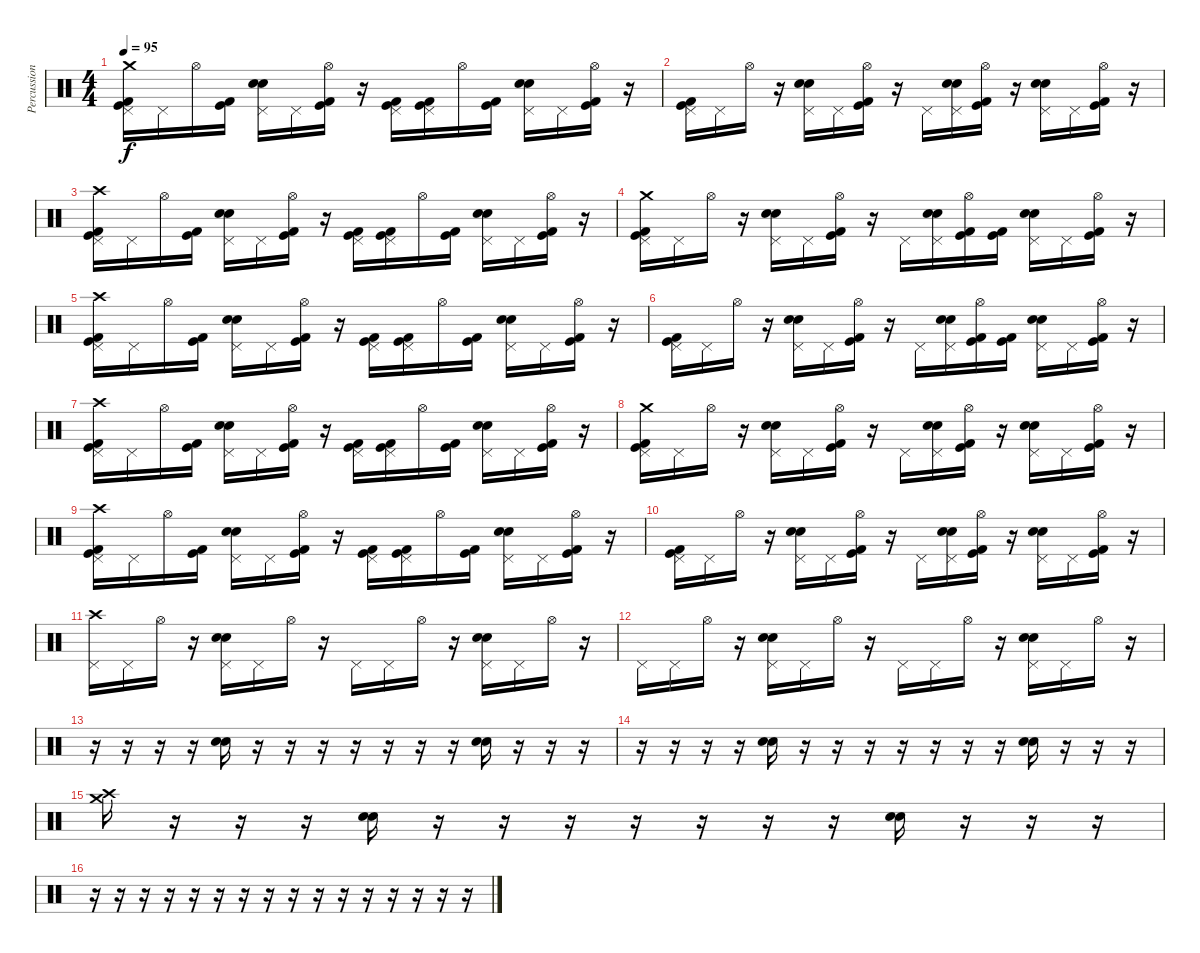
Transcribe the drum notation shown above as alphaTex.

\track ("Percussion" "Percussion") {instrument percussion}
\staff {score}
\articulation defaults
\ts (4 4)
\tempo 95
\clef neutral
\ks c
("Pedal Hi-Hat (hit)" "Crash medium (hit)" "Kick (hit) 2" "Kick (hit)").16{dy f} "Pedal Hi-Hat (hit)".16 "Hi-Hat (open)".16 ("Kick (hit) 2" "Kick (hit)").16 ("Pedal Hi-Hat (hit)" "Hand Clap (hit)" "Snare (hit) 2").16 "Pedal Hi-Hat (hit)".16 ("Hi-Hat (open)" "Kick (hit) 2" "Kick (hit)").16 r.16 ("Pedal Hi-Hat (hit)" "Kick (hit) 2" "Kick (hit)").16 ("Pedal Hi-Hat (hit)" "Kick (hit) 2" "Kick (hit)").16 "Hi-Hat (open)".16 ("Kick (hit) 2" "Kick (hit)").16 ("Pedal Hi-Hat (hit)" "Hand Clap (hit)" "Snare (hit) 2").16 "Pedal Hi-Hat (hit)".16 ("Hi-Hat (open)" "Kick (hit) 2" "Kick (hit)").16 r.16 |
("Pedal Hi-Hat (hit)" "Kick (hit) 2" "Kick (hit)").16 "Pedal Hi-Hat (hit)".16 "Hi-Hat (open)".16 r.16 ("Pedal Hi-Hat (hit)" "Hand Clap (hit)" "Snare (hit) 2").16 "Pedal Hi-Hat (hit)".16 ("Hi-Hat (open)" "Kick (hit) 2" "Kick (hit)").16 r.16 "Pedal Hi-Hat (hit)".16 ("Pedal Hi-Hat (hit)" "Hand Clap (hit)" "Snare (hit) 2").16 ("Hi-Hat (open)" "Kick (hit) 2" "Kick (hit)").16 r.16 ("Pedal Hi-Hat (hit)" "Hand Clap (hit)" "Snare (hit) 2").16 "Pedal Hi-Hat (hit)".16 ("Hi-Hat (open)" "Kick (hit) 2" "Kick (hit)").16 r.16 |
("Pedal Hi-Hat (hit)" "Crash high (hit)" "Kick (hit) 2" "Kick (hit)").16 "Pedal Hi-Hat (hit)".16 "Hi-Hat (open)".16 ("Kick (hit) 2" "Kick (hit)").16 ("Pedal Hi-Hat (hit)" "Hand Clap (hit)" "Snare (hit) 2").16 "Pedal Hi-Hat (hit)".16 ("Hi-Hat (open)" "Kick (hit) 2" "Kick (hit)").16 r.16 ("Pedal Hi-Hat (hit)" "Kick (hit) 2" "Kick (hit)").16 ("Pedal Hi-Hat (hit)" "Kick (hit) 2" "Kick (hit)").16 "Hi-Hat (open)".16 ("Kick (hit) 2" "Kick (hit)").16 ("Pedal Hi-Hat (hit)" "Hand Clap (hit)" "Snare (hit) 2").16 "Pedal Hi-Hat (hit)".16 ("Hi-Hat (open)" "Kick (hit) 2" "Kick (hit)").16 r.16 |
("Pedal Hi-Hat (hit)" "Crash medium (hit)" "Kick (hit) 2" "Kick (hit)").16 "Pedal Hi-Hat (hit)".16 "Hi-Hat (open)".16 r.16 ("Pedal Hi-Hat (hit)" "Hand Clap (hit)" "Snare (hit) 2").16 "Pedal Hi-Hat (hit)".16 ("Hi-Hat (open)" "Kick (hit) 2" "Kick (hit)").16 r.16 "Pedal Hi-Hat (hit)".16 ("Pedal Hi-Hat (hit)" "Hand Clap (hit)" "Snare (hit) 2").16 ("Hi-Hat (open)" "Kick (hit) 2" "Kick (hit)").16 ("Kick (hit) 2" "Kick (hit)").16 ("Pedal Hi-Hat (hit)" "Hand Clap (hit)" "Snare (hit) 2").16 "Pedal Hi-Hat (hit)".16 ("Hi-Hat (open)" "Kick (hit) 2" "Kick (hit)").16 r.16 |
("Pedal Hi-Hat (hit)" "Crash high (hit)" "Kick (hit) 2" "Kick (hit)").16 "Pedal Hi-Hat (hit)".16 "Hi-Hat (open)".16 ("Kick (hit) 2" "Kick (hit)").16 ("Pedal Hi-Hat (hit)" "Hand Clap (hit)" "Snare (hit) 2").16 "Pedal Hi-Hat (hit)".16 ("Hi-Hat (open)" "Kick (hit) 2" "Kick (hit)").16 r.16 ("Pedal Hi-Hat (hit)" "Kick (hit) 2" "Kick (hit)").16 ("Pedal Hi-Hat (hit)" "Kick (hit) 2" "Kick (hit)").16 "Hi-Hat (open)".16 ("Kick (hit) 2" "Kick (hit)").16 ("Pedal Hi-Hat (hit)" "Hand Clap (hit)" "Snare (hit) 2").16 "Pedal Hi-Hat (hit)".16 ("Hi-Hat (open)" "Kick (hit) 2" "Kick (hit)").16 r.16 |
("Pedal Hi-Hat (hit)" "Kick (hit) 2" "Kick (hit)").16 "Pedal Hi-Hat (hit)".16 "Hi-Hat (open)".16 r.16 ("Pedal Hi-Hat (hit)" "Hand Clap (hit)" "Snare (hit) 2").16 "Pedal Hi-Hat (hit)".16 ("Hi-Hat (open)" "Kick (hit) 2" "Kick (hit)").16 r.16 "Pedal Hi-Hat (hit)".16 ("Pedal Hi-Hat (hit)" "Hand Clap (hit)" "Snare (hit) 2").16 ("Hi-Hat (open)" "Kick (hit) 2" "Kick (hit)").16 ("Kick (hit) 2" "Kick (hit)").16 ("Pedal Hi-Hat (hit)" "Hand Clap (hit)" "Snare (hit) 2").16 "Pedal Hi-Hat (hit)".16 ("Hi-Hat (open)" "Kick (hit) 2" "Kick (hit)").16 r.16 |
("Pedal Hi-Hat (hit)" "Crash high (hit)" "Kick (hit) 2" "Kick (hit)").16 "Pedal Hi-Hat (hit)".16 "Hi-Hat (open)".16 ("Kick (hit) 2" "Kick (hit)").16 ("Pedal Hi-Hat (hit)" "Hand Clap (hit)" "Snare (hit) 2").16 "Pedal Hi-Hat (hit)".16 ("Hi-Hat (open)" "Kick (hit) 2" "Kick (hit)").16 r.16 ("Pedal Hi-Hat (hit)" "Kick (hit) 2" "Kick (hit)").16 ("Pedal Hi-Hat (hit)" "Kick (hit) 2" "Kick (hit)").16 "Hi-Hat (open)".16 ("Kick (hit) 2" "Kick (hit)").16 ("Pedal Hi-Hat (hit)" "Hand Clap (hit)" "Snare (hit) 2").16 "Pedal Hi-Hat (hit)".16 ("Hi-Hat (open)" "Kick (hit) 2" "Kick (hit)").16 r.16 |
("Pedal Hi-Hat (hit)" "Crash medium (hit)" "Kick (hit) 2" "Kick (hit)").16 "Pedal Hi-Hat (hit)".16 "Hi-Hat (open)".16 r.16 ("Pedal Hi-Hat (hit)" "Hand Clap (hit)" "Snare (hit) 2").16 "Pedal Hi-Hat (hit)".16 ("Hi-Hat (open)" "Kick (hit) 2" "Kick (hit)").16 r.16 "Pedal Hi-Hat (hit)".16 ("Pedal Hi-Hat (hit)" "Hand Clap (hit)" "Snare (hit) 2").16 ("Hi-Hat (open)" "Kick (hit) 2" "Kick (hit)").16 r.16 ("Pedal Hi-Hat (hit)" "Hand Clap (hit)" "Snare (hit) 2").16 "Pedal Hi-Hat (hit)".16 ("Hi-Hat (open)" "Kick (hit) 2" "Kick (hit)").16 r.16 |
("Pedal Hi-Hat (hit)" "Crash high (hit)" "Kick (hit) 2" "Kick (hit)").16 "Pedal Hi-Hat (hit)".16 "Hi-Hat (open)".16 ("Kick (hit) 2" "Kick (hit)").16 ("Pedal Hi-Hat (hit)" "Hand Clap (hit)" "Snare (hit) 2").16 "Pedal Hi-Hat (hit)".16 ("Hi-Hat (open)" "Kick (hit) 2" "Kick (hit)").16 r.16 ("Pedal Hi-Hat (hit)" "Kick (hit) 2" "Kick (hit)").16 ("Pedal Hi-Hat (hit)" "Kick (hit) 2" "Kick (hit)").16 "Hi-Hat (open)".16 ("Kick (hit) 2" "Kick (hit)").16 ("Pedal Hi-Hat (hit)" "Hand Clap (hit)" "Snare (hit) 2").16 "Pedal Hi-Hat (hit)".16 ("Hi-Hat (open)" "Kick (hit) 2" "Kick (hit)").16 r.16 |
("Pedal Hi-Hat (hit)" "Kick (hit) 2" "Kick (hit)").16 "Pedal Hi-Hat (hit)".16 "Hi-Hat (open)".16 r.16 ("Pedal Hi-Hat (hit)" "Hand Clap (hit)" "Snare (hit) 2").16 "Pedal Hi-Hat (hit)".16 ("Hi-Hat (open)" "Kick (hit) 2" "Kick (hit)").16 r.16 "Pedal Hi-Hat (hit)".16 ("Pedal Hi-Hat (hit)" "Hand Clap (hit)" "Snare (hit) 2").16 ("Hi-Hat (open)" "Kick (hit) 2" "Kick (hit)").16 r.16 ("Pedal Hi-Hat (hit)" "Hand Clap (hit)" "Snare (hit) 2").16 "Pedal Hi-Hat (hit)".16 ("Hi-Hat (open)" "Kick (hit) 2" "Kick (hit)").16 r.16 |
("Pedal Hi-Hat (hit)" "Crash high (hit)").16 "Pedal Hi-Hat (hit)".16 "Hi-Hat (open)".16 r.16 ("Pedal Hi-Hat (hit)" "Hand Clap (hit)" "Snare (hit) 2").16 "Pedal Hi-Hat (hit)".16 "Hi-Hat (open)".16 r.16 "Pedal Hi-Hat (hit)".16 "Pedal Hi-Hat (hit)".16 "Hi-Hat (open)".16 r.16 ("Pedal Hi-Hat (hit)" "Hand Clap (hit)" "Snare (hit) 2").16 "Pedal Hi-Hat (hit)".16 "Hi-Hat (open)".16 r.16 |
"Pedal Hi-Hat (hit)".16 "Pedal Hi-Hat (hit)".16 "Hi-Hat (open)".16 r.16 ("Pedal Hi-Hat (hit)" "Hand Clap (hit)" "Snare (hit) 2").16 "Pedal Hi-Hat (hit)".16 "Hi-Hat (open)".16 r.16 "Pedal Hi-Hat (hit)".16 "Pedal Hi-Hat (hit)".16 "Hi-Hat (open)".16 r.16 ("Pedal Hi-Hat (hit)" "Hand Clap (hit)" "Snare (hit) 2").16 "Pedal Hi-Hat (hit)".16 "Hi-Hat (open)".16 r.16 |
r.16 r.16 r.16 r.16 ("Hand Clap (hit)" "Snare (hit) 2").16 r.16 r.16 r.16 r.16 r.16 r.16 r.16 ("Hand Clap (hit)" "Snare (hit) 2").16 r.16 r.16 r.16 |
r.16 r.16 r.16 r.16 ("Hand Clap (hit)" "Snare (hit) 2").16 r.16 r.16 r.16 r.16 r.16 r.16 r.16 ("Hand Clap (hit)" "Snare (hit) 2").16 r.16 r.16 r.16 |
("Crash medium (hit)" "Crash high (hit)").16 r.16 r.16 r.16 ("Hand Clap (hit)" "Snare (hit) 2").16 r.16 r.16 r.16 r.16 r.16 r.16 r.16 ("Hand Clap (hit)" "Snare (hit) 2").16 r.16 r.16 r.16 |
r.16 r.16 r.16 r.16 r.16 r.16 r.16 r.16 r.16 r.16 r.16 r.16 r.16 r.16 r.16 r.16
